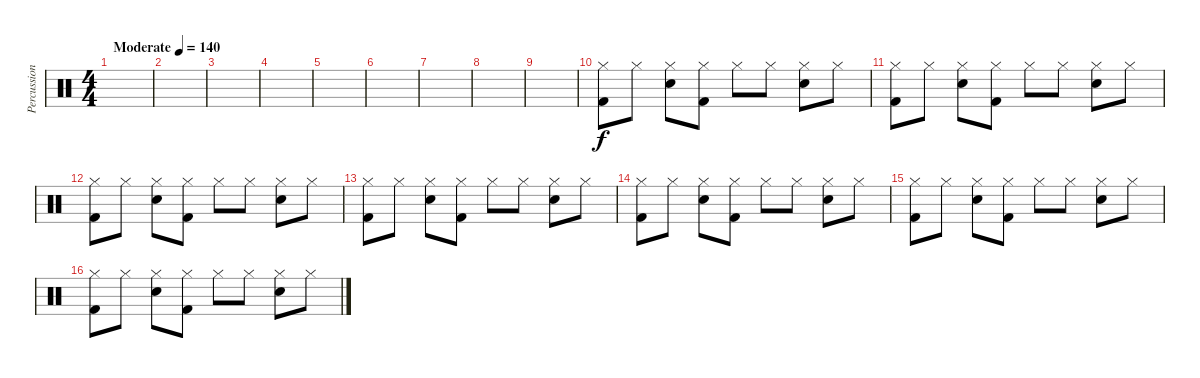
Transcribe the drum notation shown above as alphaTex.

\track ("Percussion" "Percussion") {instrument percussion}
\staff {score}
\articulation defaults
\ts (4 4)
\tempo (140 "Moderate")
\clef neutral
\ks c
|
|
|
|
|
|
|
|
|
("Hi-Hat (closed)" "Kick (hit) 2").8 "Hi-Hat (closed)".8 ("Hi-Hat (closed)" "Snare (hit) 2").8 ("Hi-Hat (closed)" "Kick (hit) 2").8 "Hi-Hat (closed)".8 "Hi-Hat (closed)".8 ("Hi-Hat (closed)" "Snare (hit) 2").8 "Hi-Hat (closed)".8 |
("Hi-Hat (closed)" "Kick (hit) 2").8 "Hi-Hat (closed)".8 ("Hi-Hat (closed)" "Snare (hit) 2").8 ("Hi-Hat (closed)" "Kick (hit) 2").8 "Hi-Hat (closed)".8 "Hi-Hat (closed)".8 ("Hi-Hat (closed)" "Snare (hit) 2").8 "Hi-Hat (closed)".8 |
("Hi-Hat (closed)" "Kick (hit) 2").8 "Hi-Hat (closed)".8 ("Hi-Hat (closed)" "Snare (hit) 2").8 ("Hi-Hat (closed)" "Kick (hit) 2").8 "Hi-Hat (closed)".8 "Hi-Hat (closed)".8 ("Hi-Hat (closed)" "Snare (hit) 2").8 "Hi-Hat (closed)".8 |
("Hi-Hat (closed)" "Kick (hit) 2").8 "Hi-Hat (closed)".8 ("Hi-Hat (closed)" "Snare (hit) 2").8 ("Hi-Hat (closed)" "Kick (hit) 2").8 "Hi-Hat (closed)".8 "Hi-Hat (closed)".8 ("Hi-Hat (closed)" "Snare (hit) 2").8 "Hi-Hat (closed)".8 |
("Hi-Hat (closed)" "Kick (hit) 2").8 "Hi-Hat (closed)".8 ("Hi-Hat (closed)" "Snare (hit) 2").8 ("Hi-Hat (closed)" "Kick (hit) 2").8 "Hi-Hat (closed)".8 "Hi-Hat (closed)".8 ("Hi-Hat (closed)" "Snare (hit) 2").8 "Hi-Hat (closed)".8 |
("Hi-Hat (closed)" "Kick (hit) 2").8 "Hi-Hat (closed)".8 ("Hi-Hat (closed)" "Snare (hit) 2").8 ("Hi-Hat (closed)" "Kick (hit) 2").8 "Hi-Hat (closed)".8 "Hi-Hat (closed)".8 ("Hi-Hat (closed)" "Snare (hit) 2").8 "Hi-Hat (closed)".8 |
("Hi-Hat (closed)" "Kick (hit) 2").8 "Hi-Hat (closed)".8 ("Hi-Hat (closed)" "Snare (hit) 2").8 ("Hi-Hat (closed)" "Kick (hit) 2").8 "Hi-Hat (closed)".8 "Hi-Hat (closed)".8 ("Hi-Hat (closed)" "Snare (hit) 2").8 "Hi-Hat (closed)".8
